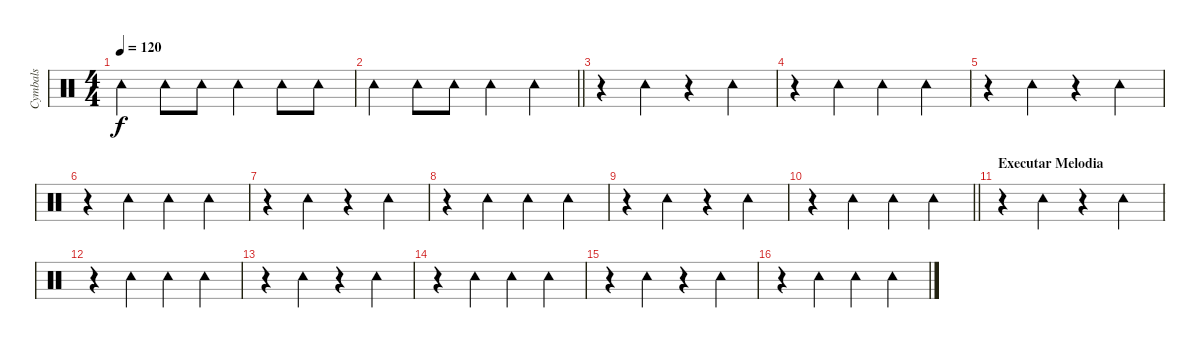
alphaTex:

\track ("Cymbals" "Cymbals") {instrument percussion}
\staff {score}
\articulation defaults
\ts (4 4)
\tempo 120
\clef neutral
\ks c "Tambourine (hit)".4{dy f} "Tambourine (hit)".8 "Tambourine (hit)".8 "Tambourine (hit)".4 "Tambourine (hit)".8 "Tambourine (hit)".8
|
\barLineRight lightlight "Tambourine (hit)".4 "Tambourine (hit)".8 "Tambourine (hit)".8 "Tambourine (hit)".4 "Tambourine (hit)".4
|
r.4 "Tambourine (hit)".4 r.4 "Tambourine (hit)".4 |
r.4 "Tambourine (hit)".4 "Tambourine (hit)".4 "Tambourine (hit)".4 |
r.4 "Tambourine (hit)".4 r.4 "Tambourine (hit)".4 |
r.4 "Tambourine (hit)".4 "Tambourine (hit)".4 "Tambourine (hit)".4 |
r.4 "Tambourine (hit)".4 r.4 "Tambourine (hit)".4 |
r.4 "Tambourine (hit)".4 "Tambourine (hit)".4 "Tambourine (hit)".4 |
r.4 "Tambourine (hit)".4 r.4 "Tambourine (hit)".4 |
\barLineRight lightlight
r.4 "Tambourine (hit)".4 "Tambourine (hit)".4 "Tambourine (hit)".4 |
\section ("" "Executar Melodia")
r.4 "Tambourine (hit)".4 r.4 "Tambourine (hit)".4 |
r.4 "Tambourine (hit)".4 "Tambourine (hit)".4 "Tambourine (hit)".4 |
r.4 "Tambourine (hit)".4 r.4 "Tambourine (hit)".4 |
r.4 "Tambourine (hit)".4 "Tambourine (hit)".4 "Tambourine (hit)".4 |
r.4 "Tambourine (hit)".4 r.4 "Tambourine (hit)".4 |
r.4 "Tambourine (hit)".4 "Tambourine (hit)".4 "Tambourine (hit)".4
